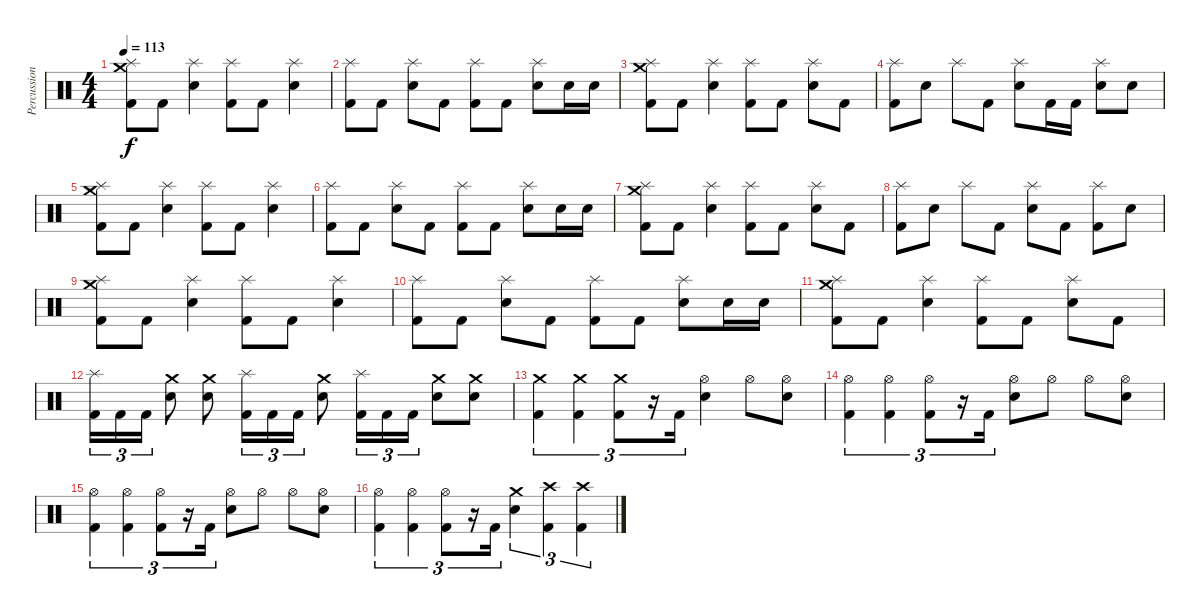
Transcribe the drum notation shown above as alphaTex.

\track ("Percussion" "Percussion") {instrument percussion}
\staff {score}
\articulation defaults
\ts (4 4)
\tempo 113
\clef neutral
\ks c
("Kick (hit) 2" "Splash (hit)" "Crash medium (hit)").8{dy f} "Kick (hit) 2".8 ("Snare (hit) 2" "Splash (hit)").4 ("Kick (hit) 2" "Splash (hit)").8 "Kick (hit) 2".8 ("Snare (hit) 2" "Splash (hit)").4 |
("Kick (hit) 2" "Splash (hit)").8 "Kick (hit) 2".8 ("Snare (hit) 2" "Splash (hit)").8 "Kick (hit) 2".8 ("Kick (hit) 2" "Splash (hit)").8 "Kick (hit) 2".8 ("Snare (hit) 2" "Splash (hit)").8 "Snare (hit) 2".16 "Snare (hit) 2".16 |
("Kick (hit) 2" "Splash (hit)" "Crash medium (hit)").8 "Kick (hit) 2".8 ("Snare (hit) 2" "Splash (hit)").4 ("Kick (hit) 2" "Splash (hit)").8 "Kick (hit) 2".8 ("Snare (hit) 2" "Splash (hit)").8 "Kick (hit) 2".8 |
("Kick (hit) 2" "Splash (hit)").8 "Snare (hit) 2".8 "Splash (hit)".8 "Kick (hit) 2".8 ("Snare (hit) 2" "Splash (hit)").8 "Kick (hit) 2".16 "Kick (hit) 2".16 ("Snare (hit) 2" "Splash (hit)").8 "Snare (hit) 2".8 |
("Kick (hit) 2" "Splash (hit)" "Crash medium (hit)").8 "Kick (hit) 2".8 ("Snare (hit) 2" "Splash (hit)").4 ("Kick (hit) 2" "Splash (hit)").8 "Kick (hit) 2".8 ("Snare (hit) 2" "Splash (hit)").4 |
("Kick (hit) 2" "Splash (hit)").8 "Kick (hit) 2".8 ("Snare (hit) 2" "Splash (hit)").8 "Kick (hit) 2".8 ("Kick (hit) 2" "Splash (hit)").8 "Kick (hit) 2".8 ("Snare (hit) 2" "Splash (hit)").8 "Snare (hit) 2".16 "Snare (hit) 2".16 |
("Kick (hit) 2" "Splash (hit)" "Crash medium (hit)").8 "Kick (hit) 2".8 ("Snare (hit) 2" "Splash (hit)").4 ("Kick (hit) 2" "Splash (hit)").8 "Kick (hit) 2".8 ("Snare (hit) 2" "Splash (hit)").8 "Kick (hit) 2".8 |
("Kick (hit) 2" "Splash (hit)").8 "Snare (hit) 2".8 "Splash (hit)".8 "Kick (hit) 2".8 ("Snare (hit) 2" "Splash (hit)").8 "Kick (hit) 2".8 ("Kick (hit) 2" "Splash (hit)").8 "Snare (hit) 2".8 |
("Kick (hit) 2" "Splash (hit)" "Crash medium (hit)").8 "Kick (hit) 2".8 ("Snare (hit) 2" "Splash (hit)").4 ("Kick (hit) 2" "Splash (hit)").8 "Kick (hit) 2".8 ("Snare (hit) 2" "Splash (hit)").4 |
("Kick (hit) 2" "Splash (hit)").8 "Kick (hit) 2".8 ("Snare (hit) 2" "Splash (hit)").8 "Kick (hit) 2".8 ("Kick (hit) 2" "Splash (hit)").8 "Kick (hit) 2".8 ("Snare (hit) 2" "Splash (hit)").8 "Snare (hit) 2".16 "Snare (hit) 2".16 |
("Kick (hit) 2" "Splash (hit)" "Crash medium (hit)").8 "Kick (hit) 2".8 ("Snare (hit) 2" "Splash (hit)").4 ("Kick (hit) 2" "Splash (hit)").8 "Kick (hit) 2".8 ("Snare (hit) 2" "Splash (hit)").8 "Kick (hit) 2".8 |
("Kick (hit) 2" "Splash (hit)").16{tu (3 2)} "Kick (hit) 2".16{tu (3 2)} "Kick (hit) 2".16{tu (3 2)} ("Electric Snare (hit)" "Crash medium (hit)").8 ("Electric Snare (hit)" "Crash medium (hit)").8 ("Kick (hit) 2" "Splash (hit)").16{tu (3 2)} "Kick (hit) 2".16{tu (3 2)} "Kick (hit) 2".16{tu (3 2)} ("Electric Snare (hit)" "Crash medium (hit)").8 ("Kick (hit) 2" "Splash (hit)").16{tu (3 2)} "Kick (hit) 2".16{tu (3 2)} "Kick (hit) 2".16{tu (3 2)} ("Electric Snare (hit)" "Crash medium (hit)").8 ("Electric Snare (hit)" "Crash medium (hit)").8 |
("Kick (hit) 2" "Crash medium (hit)").4{tu (3 2)} ("Kick (hit) 2" "Crash medium (hit)").4{tu (3 2)} ("Kick (hit) 2" "Crash medium (hit)").8{tu (3 2)} r.16{tu (3 2)} "Kick (hit) 2".16{tu (3 2)} ("Electric Snare (hit)" "Hi-Hat (open)").4 "Hi-Hat (open)".8 ("Electric Snare (hit)" "Hi-Hat (open)").8 |
("Kick (hit) 2" "Hi-Hat (open)").4{tu (3 2)} ("Kick (hit) 2" "Hi-Hat (open)").4{tu (3 2)} ("Kick (hit) 2" "Hi-Hat (open)").8{tu (3 2)} r.16{tu (3 2)} "Kick (hit) 2".16{tu (3 2)} ("Electric Snare (hit)" "Hi-Hat (open)").8 "Hi-Hat (open)".8 "Hi-Hat (open)".8 ("Electric Snare (hit)" "Hi-Hat (open)").8 |
("Kick (hit) 2" "Hi-Hat (open)").4{tu (3 2)} ("Kick (hit) 2" "Hi-Hat (open)").4{tu (3 2)} ("Kick (hit) 2" "Hi-Hat (open)").8{tu (3 2)} r.16{tu (3 2)} "Kick (hit) 2".16{tu (3 2)} ("Electric Snare (hit)" "Hi-Hat (open)").8 "Hi-Hat (open)".8 "Hi-Hat (open)".8 ("Electric Snare (hit)" "Hi-Hat (open)").8 |
("Kick (hit) 2" "Hi-Hat (open)").4{tu (3 2)} ("Kick (hit) 2" "Hi-Hat (open)").4{tu (3 2)} ("Kick (hit) 2" "Hi-Hat (open)").8{tu (3 2)} r.16{tu (3 2)} "Kick (hit) 2".16{tu (3 2)} ("Electric Snare (hit)" "Crash medium (hit)").4{tu (3 2)} ("Kick (hit) 2" "Crash high (hit)").4{tu (3 2)} ("Kick (hit) 2" "Crash high (hit)").4{tu (3 2)}
